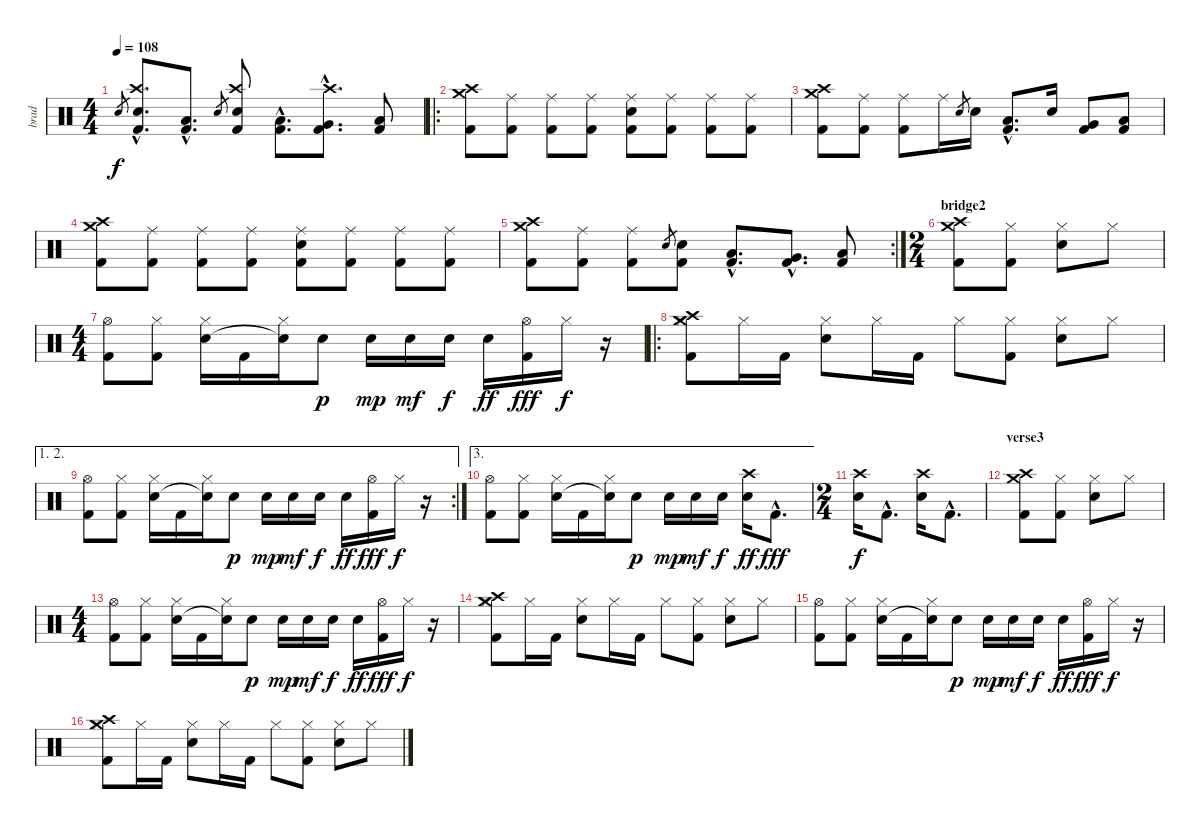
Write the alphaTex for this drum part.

\track ("brad" "brad") {instrument percussion}
\staff {score}
\articulation defaults
\ts (4 4)
\tempo 108
\clef neutral
\ks c "Electric Snare (hit)".8{gr dy f}
("Crash high (hit)"{hac} "Electric Snare (hit)"{hac} "Kick (hit) 2"{hac}).8{d} ("Low Tom (hit)"{hac} "Kick (hit) 2"{hac}).8{d} "Electric Snare (hit)".8{gr} ("Crash high (hit)" "Electric Snare (hit)" "Kick (hit) 2").8 ("Low Tom (hit)"{hac} "Kick (hit) 2"{hac}).8{d} ("Crash high (hit)"{hac} "Very Low Tom (hit)"{hac} "Kick (hit) 2"{hac}).8{d} ("Low Floor Tom (hit)" "Kick (hit) 2").8 |
\ro
("Crash medium (hit)" "Crash high (hit)" "Kick (hit) 2").8 ("Ride (middle)" "Kick (hit) 2").8 ("Ride (middle)" "Kick (hit) 2").8 ("Ride (middle)" "Kick (hit) 2").8 ("Ride (middle)" "Electric Snare (hit)" "Kick (hit) 2").8 ("Ride (middle)" "Kick (hit) 2").8 ("Ride (middle)" "Kick (hit) 2").8 ("Ride (middle)" "Kick (hit) 2").8 |
("Crash medium (hit)" "Crash high (hit)" "Kick (hit) 2").8 ("Ride (middle)" "Kick (hit) 2").8 ("Ride (middle)" "Kick (hit) 2").8 "Ride (middle)".16 "Electric Snare (hit)".8{gr} "Electric Snare (hit)".16 ("Low Tom (hit)"{hac} "Kick (hit) 2"{hac}).8{d} "Electric Snare (hit)".16 ("Very Low Tom (hit)" "Kick (hit) 2").8 ("Low Floor Tom (hit)" "Kick (hit) 2").8 |
("Crash high (hit)" "Crash medium (hit)" "Kick (hit) 2").8 ("Ride (middle)" "Kick (hit) 2").8 ("Ride (middle)" "Kick (hit) 2").8 ("Ride (middle)" "Kick (hit) 2").8 ("Ride (middle)" "Electric Snare (hit)" "Kick (hit) 2").8 ("Ride (middle)" "Kick (hit) 2").8 ("Ride (middle)" "Kick (hit) 2").8 ("Ride (middle)" "Kick (hit) 2").8 |
\rc 2
("Crash high (hit)" "Crash medium (hit)" "Kick (hit) 2").8 ("Ride (middle)" "Kick (hit) 2").8 ("Ride (middle)" "Kick (hit) 2").8 "Electric Snare (hit)".8{gr} ("Electric Snare (hit)" "Kick (hit) 2").8 ("Low Tom (hit)"{hac} "Kick (hit) 2"{hac}).8{d} ("Very Low Tom (hit)"{hac} "Kick (hit) 2"{hac}).8{d} ("Low Floor Tom (hit)" "Kick (hit) 2").8 |
\ts (2 4)
\section ("" "bridge2")
("Crash high (hit)" "Crash medium (hit)" "Kick (hit) 2").8 ("Hi-Hat (closed)" "Kick (hit) 2").8 ("Hi-Hat (closed)" "Electric Snare (hit)").8 "Hi-Hat (closed)".8 |
\ts (4 4)
("Hi-Hat (open)" "Kick (hit) 2").8 ("Hi-Hat (closed)" "Kick (hit) 2").8 ("Hi-Hat (closed)" "Electric Snare (hit)").16 "Kick (hit) 2".16 ("Hi-Hat (closed)" "Snare (hit)"{t}).16 "Electric Snare (hit)".8{dy p} "Electric Snare (hit)".16{dy mp} "Electric Snare (hit)".16{dy mf} "Electric Snare (hit)".16{dy f} "Electric Snare (hit)".16{dy ff} ("Hi-Hat (open)" "Kick (hit) 2").16{dy fff} "Hi-Hat (closed)".16{dy f} r.16 |
\ro
("Crash medium (hit)" "Crash high (hit)" "Hi-Hat (closed)" "Kick (hit) 2").8 "Hi-Hat (closed)".16 "Kick (hit) 2".16 ("Hi-Hat (closed)" "Electric Snare (hit)").8 "Hi-Hat (closed)".16 "Kick (hit) 2".16 "Hi-Hat (closed)".8 ("Hi-Hat (closed)" "Kick (hit) 2").8 ("Hi-Hat (closed)" "Electric Snare (hit)").8 "Hi-Hat (closed)".8 |
\ae (1 2)
\rc 2
("Hi-Hat (open)" "Kick (hit) 2").8 ("Hi-Hat (closed)" "Kick (hit) 2").8 ("Hi-Hat (closed)" "Electric Snare (hit)").16 "Kick (hit) 2".16 ("Hi-Hat (closed)" "Snare (hit)"{t}).16 "Electric Snare (hit)".8{dy p} "Electric Snare (hit)".16{dy mp} "Electric Snare (hit)".16{dy mf} "Electric Snare (hit)".16{dy f} "Electric Snare (hit)".16{dy ff} ("Hi-Hat (open)" "Kick (hit) 2").16{dy fff} "Hi-Hat (closed)".16{dy f} r.16 |
\ae 3
("Hi-Hat (open)" "Kick (hit) 2").8 ("Hi-Hat (closed)" "Kick (hit) 2").8 ("Hi-Hat (closed)" "Electric Snare (hit)").16 "Kick (hit) 2".16 ("Hi-Hat (closed)" "Snare (hit)"{t}).16 "Electric Snare (hit)".8{dy p} "Electric Snare (hit)".16{dy mp} "Electric Snare (hit)".16{dy mf} "Electric Snare (hit)".16{dy f} ("Crash high (hit)" "Electric Snare (hit)").16{dy ff} "Kick (hit) 2"{hac}.8{d dy fff} |
\ts (2 4)
("Crash high (hit)" "Electric Snare (hit)").16{dy f} "Kick (hit) 2"{hac}.8{d} ("Crash high (hit)" "Electric Snare (hit)").16 "Kick (hit) 2"{hac}.8{d} |
\section ("" "verse3")
("Crash high (hit)" "Crash medium (hit)" "Kick (hit) 2").8 ("Hi-Hat (closed)" "Kick (hit) 2").8 ("Hi-Hat (closed)" "Electric Snare (hit)").8 "Hi-Hat (closed)".8 |
\ts (4 4)
("Hi-Hat (open)" "Kick (hit) 2").8 ("Hi-Hat (closed)" "Kick (hit) 2").8 ("Hi-Hat (closed)" "Electric Snare (hit)").16 "Kick (hit) 2".16 ("Hi-Hat (closed)" "Snare (hit)"{t}).16 "Electric Snare (hit)".8{dy p} "Electric Snare (hit)".16{dy mp} "Electric Snare (hit)".16{dy mf} "Electric Snare (hit)".16{dy f} "Electric Snare (hit)".16{dy ff} ("Hi-Hat (open)" "Kick (hit) 2").16{dy fff} "Hi-Hat (closed)".16{dy f} r.16 |
("Crash medium (hit)" "Crash high (hit)" "Hi-Hat (closed)" "Kick (hit) 2").8 "Hi-Hat (closed)".16 "Kick (hit) 2".16 ("Hi-Hat (closed)" "Electric Snare (hit)").8 "Hi-Hat (closed)".16 "Kick (hit) 2".16 "Hi-Hat (closed)".8 ("Hi-Hat (closed)" "Kick (hit) 2").8 ("Hi-Hat (closed)" "Electric Snare (hit)").8 "Hi-Hat (closed)".8 |
("Hi-Hat (open)" "Kick (hit) 2").8 ("Hi-Hat (closed)" "Kick (hit) 2").8 ("Hi-Hat (closed)" "Electric Snare (hit)").16 "Kick (hit) 2".16 ("Hi-Hat (closed)" "Snare (hit)"{t}).16 "Electric Snare (hit)".8{dy p} "Electric Snare (hit)".16{dy mp} "Electric Snare (hit)".16{dy mf} "Electric Snare (hit)".16{dy f} "Electric Snare (hit)".16{dy ff} ("Hi-Hat (open)" "Kick (hit) 2").16{dy fff} "Hi-Hat (closed)".16{dy f} r.16 |
("Crash medium (hit)" "Crash high (hit)" "Hi-Hat (closed)" "Kick (hit) 2").8 "Hi-Hat (closed)".16 "Kick (hit) 2".16 ("Hi-Hat (closed)" "Electric Snare (hit)").8 "Hi-Hat (closed)".16 "Kick (hit) 2".16 "Hi-Hat (closed)".8 ("Hi-Hat (closed)" "Kick (hit) 2").8 ("Hi-Hat (closed)" "Electric Snare (hit)").8 "Hi-Hat (closed)".8
